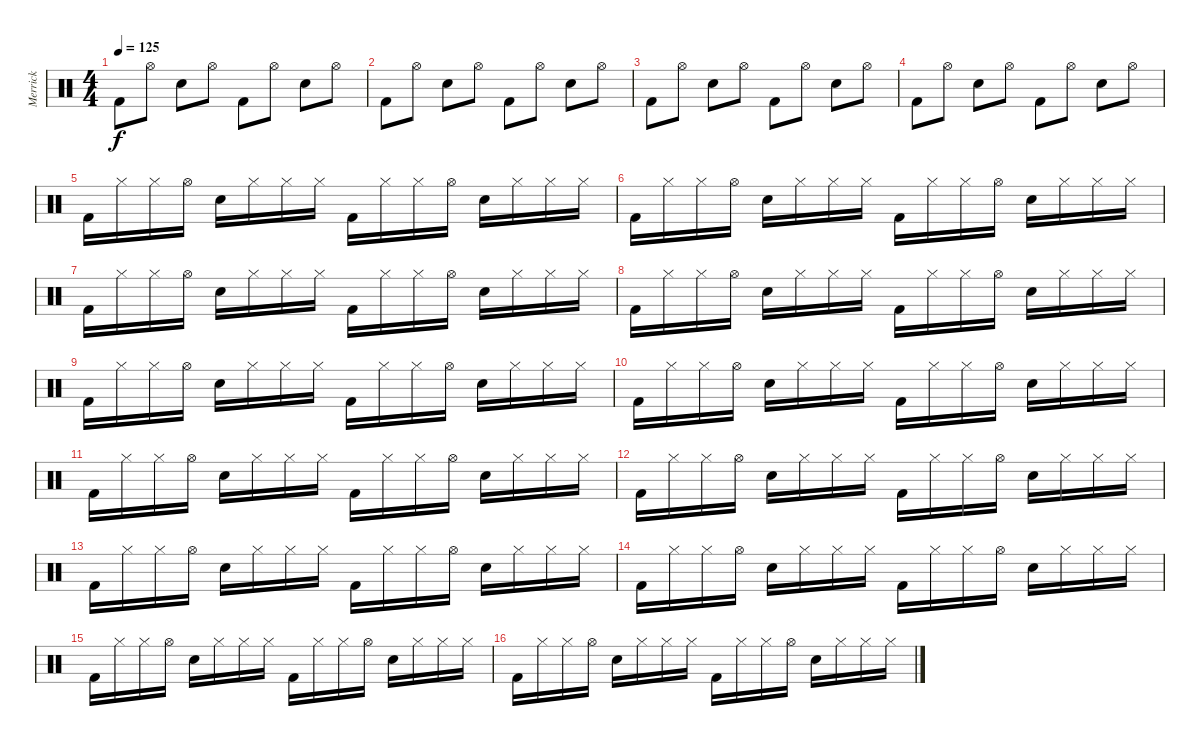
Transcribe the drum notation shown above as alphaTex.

\track ("Merrick " "Merrick ") {instrument percussion}
\staff {score}
\articulation defaults
\ts (4 4)
\tempo 125
\clef neutral
\ks c "Kick (hit) 2".8{dy f} "Hi-Hat (open)".8 "Electric Snare (hit)".8 "Hi-Hat (open)".8 "Kick (hit) 2".8 "Hi-Hat (open)".8 "Electric Snare (hit)".8 "Hi-Hat (open)".8
|
"Kick (hit) 2".8 "Hi-Hat (open)".8 "Electric Snare (hit)".8 "Hi-Hat (open)".8 "Kick (hit) 2".8 "Hi-Hat (open)".8 "Electric Snare (hit)".8 "Hi-Hat (open)".8 |
"Kick (hit) 2".8 "Hi-Hat (open)".8 "Electric Snare (hit)".8 "Hi-Hat (open)".8 "Kick (hit) 2".8 "Hi-Hat (open)".8 "Electric Snare (hit)".8 "Hi-Hat (open)".8 |
"Kick (hit) 2".8 "Hi-Hat (open)".8 "Electric Snare (hit)".8 "Hi-Hat (open)".8 "Kick (hit) 2".8 "Hi-Hat (open)".8 "Electric Snare (hit)".8 "Hi-Hat (open)".8 |
"Kick (hit) 2".16 "Hi-Hat (closed)".16 "Hi-Hat (closed)".16 "Hi-Hat (open)".16 "Electric Snare (hit)".16 "Hi-Hat (closed)".16 "Hi-Hat (closed)".16 "Hi-Hat (closed)".16 "Kick (hit) 2".16 "Hi-Hat (closed)".16 "Hi-Hat (closed)".16 "Hi-Hat (open)".16 "Electric Snare (hit)".16 "Hi-Hat (closed)".16 "Hi-Hat (closed)".16 "Hi-Hat (closed)".16 |
"Kick (hit) 2".16 "Hi-Hat (closed)".16 "Hi-Hat (closed)".16 "Hi-Hat (open)".16 "Electric Snare (hit)".16 "Hi-Hat (closed)".16 "Hi-Hat (closed)".16 "Hi-Hat (closed)".16 "Kick (hit) 2".16 "Hi-Hat (closed)".16 "Hi-Hat (closed)".16 "Hi-Hat (open)".16 "Electric Snare (hit)".16 "Hi-Hat (closed)".16 "Hi-Hat (closed)".16 "Hi-Hat (closed)".16 |
"Kick (hit) 2".16 "Hi-Hat (closed)".16 "Hi-Hat (closed)".16 "Hi-Hat (open)".16 "Electric Snare (hit)".16 "Hi-Hat (closed)".16 "Hi-Hat (closed)".16 "Hi-Hat (closed)".16 "Kick (hit) 2".16 "Hi-Hat (closed)".16 "Hi-Hat (closed)".16 "Hi-Hat (open)".16 "Electric Snare (hit)".16 "Hi-Hat (closed)".16 "Hi-Hat (closed)".16 "Hi-Hat (closed)".16 |
"Kick (hit) 2".16 "Hi-Hat (closed)".16 "Hi-Hat (closed)".16 "Hi-Hat (open)".16 "Electric Snare (hit)".16 "Hi-Hat (closed)".16 "Hi-Hat (closed)".16 "Hi-Hat (closed)".16 "Kick (hit) 2".16 "Hi-Hat (closed)".16 "Hi-Hat (closed)".16 "Hi-Hat (open)".16 "Electric Snare (hit)".16 "Hi-Hat (closed)".16 "Hi-Hat (closed)".16 "Hi-Hat (closed)".16 |
"Kick (hit) 2".16 "Hi-Hat (closed)".16 "Hi-Hat (closed)".16 "Hi-Hat (open)".16 "Electric Snare (hit)".16 "Hi-Hat (closed)".16 "Hi-Hat (closed)".16 "Hi-Hat (closed)".16 "Kick (hit) 2".16 "Hi-Hat (closed)".16 "Hi-Hat (closed)".16 "Hi-Hat (open)".16 "Electric Snare (hit)".16 "Hi-Hat (closed)".16 "Hi-Hat (closed)".16 "Hi-Hat (closed)".16 |
"Kick (hit) 2".16 "Hi-Hat (closed)".16 "Hi-Hat (closed)".16 "Hi-Hat (open)".16 "Electric Snare (hit)".16 "Hi-Hat (closed)".16 "Hi-Hat (closed)".16 "Hi-Hat (closed)".16 "Kick (hit) 2".16 "Hi-Hat (closed)".16 "Hi-Hat (closed)".16 "Hi-Hat (open)".16 "Electric Snare (hit)".16 "Hi-Hat (closed)".16 "Hi-Hat (closed)".16 "Hi-Hat (closed)".16 |
"Kick (hit) 2".16 "Hi-Hat (closed)".16 "Hi-Hat (closed)".16 "Hi-Hat (open)".16 "Electric Snare (hit)".16 "Hi-Hat (closed)".16 "Hi-Hat (closed)".16 "Hi-Hat (closed)".16 "Kick (hit) 2".16 "Hi-Hat (closed)".16 "Hi-Hat (closed)".16 "Hi-Hat (open)".16 "Electric Snare (hit)".16 "Hi-Hat (closed)".16 "Hi-Hat (closed)".16 "Hi-Hat (closed)".16 |
"Kick (hit) 2".16 "Hi-Hat (closed)".16 "Hi-Hat (closed)".16 "Hi-Hat (open)".16 "Electric Snare (hit)".16 "Hi-Hat (closed)".16 "Hi-Hat (closed)".16 "Hi-Hat (closed)".16 "Kick (hit) 2".16 "Hi-Hat (closed)".16 "Hi-Hat (closed)".16 "Hi-Hat (open)".16 "Electric Snare (hit)".16 "Hi-Hat (closed)".16 "Hi-Hat (closed)".16 "Hi-Hat (closed)".16 |
"Kick (hit) 2".16 "Hi-Hat (closed)".16 "Hi-Hat (closed)".16 "Hi-Hat (open)".16 "Electric Snare (hit)".16 "Hi-Hat (closed)".16 "Hi-Hat (closed)".16 "Hi-Hat (closed)".16 "Kick (hit) 2".16 "Hi-Hat (closed)".16 "Hi-Hat (closed)".16 "Hi-Hat (open)".16 "Electric Snare (hit)".16 "Hi-Hat (closed)".16 "Hi-Hat (closed)".16 "Hi-Hat (closed)".16 |
"Kick (hit) 2".16 "Hi-Hat (closed)".16 "Hi-Hat (closed)".16 "Hi-Hat (open)".16 "Electric Snare (hit)".16 "Hi-Hat (closed)".16 "Hi-Hat (closed)".16 "Hi-Hat (closed)".16 "Kick (hit) 2".16 "Hi-Hat (closed)".16 "Hi-Hat (closed)".16 "Hi-Hat (open)".16 "Electric Snare (hit)".16 "Hi-Hat (closed)".16 "Hi-Hat (closed)".16 "Hi-Hat (closed)".16 |
"Kick (hit) 2".16 "Hi-Hat (closed)".16 "Hi-Hat (closed)".16 "Hi-Hat (open)".16 "Electric Snare (hit)".16 "Hi-Hat (closed)".16 "Hi-Hat (closed)".16 "Hi-Hat (closed)".16 "Kick (hit) 2".16 "Hi-Hat (closed)".16 "Hi-Hat (closed)".16 "Hi-Hat (open)".16 "Electric Snare (hit)".16 "Hi-Hat (closed)".16 "Hi-Hat (closed)".16 "Hi-Hat (closed)".16 |
"Kick (hit) 2".16 "Hi-Hat (closed)".16 "Hi-Hat (closed)".16 "Hi-Hat (open)".16 "Electric Snare (hit)".16 "Hi-Hat (closed)".16 "Hi-Hat (closed)".16 "Hi-Hat (closed)".16 "Kick (hit) 2".16 "Hi-Hat (closed)".16 "Hi-Hat (closed)".16 "Hi-Hat (open)".16 "Electric Snare (hit)".16 "Hi-Hat (closed)".16 "Hi-Hat (closed)".16 "Hi-Hat (closed)".16
